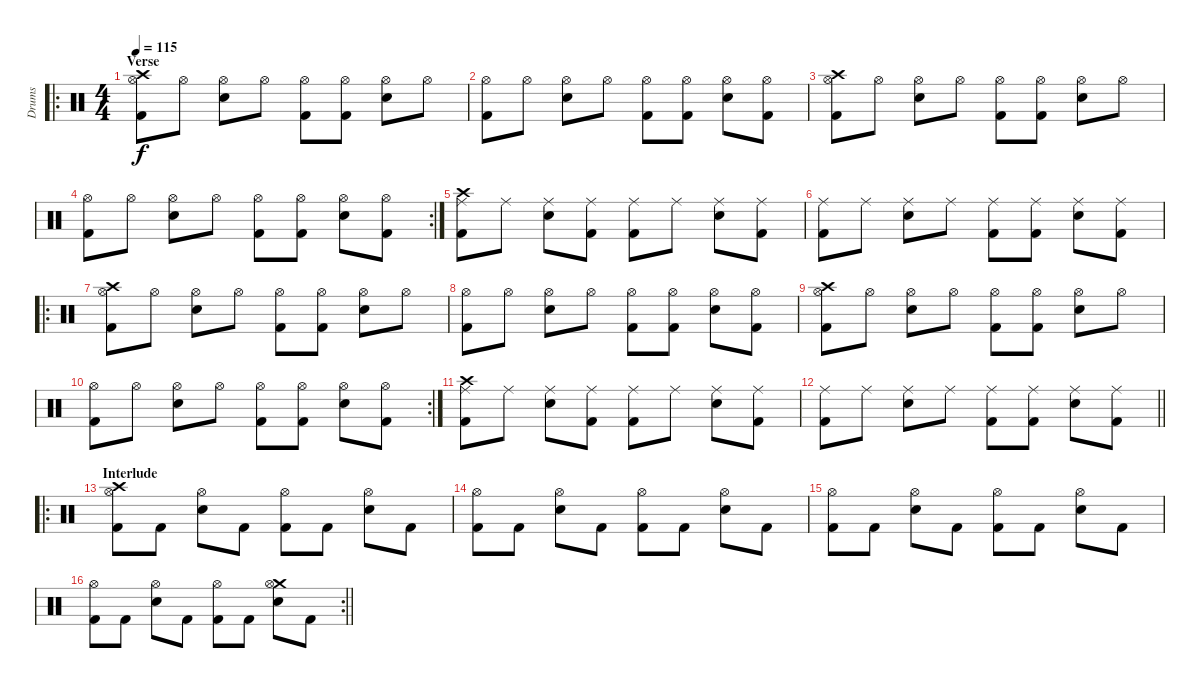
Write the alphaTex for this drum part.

\track ("Drums" "Drums") {instrument percussion}
\staff {score}
\articulation defaults
\ro
\ts (4 4)
\section ("" "Verse")
\tempo 115
\clef neutral
\ks c
("Crash high (hit)" "Hi-Hat (open)" "Kick (hit) 2").8{dy f} "Hi-Hat (open)".8 ("Hi-Hat (open)" "Snare (hit) 2").8 "Hi-Hat (open)".8 ("Hi-Hat (open)" "Kick (hit) 2").8 ("Hi-Hat (open)" "Kick (hit) 2").8 ("Hi-Hat (open)" "Snare (hit) 2").8 "Hi-Hat (open)".8 |
("Hi-Hat (open)" "Kick (hit) 2").8 "Hi-Hat (open)".8 ("Hi-Hat (open)" "Snare (hit) 2").8 "Hi-Hat (open)".8 ("Hi-Hat (open)" "Kick (hit) 2").8 ("Hi-Hat (open)" "Kick (hit) 2").8 ("Hi-Hat (open)" "Snare (hit) 2").8 ("Hi-Hat (open)" "Kick (hit) 2").8 |
("Crash high (hit)" "Hi-Hat (open)" "Kick (hit) 2").8 "Hi-Hat (open)".8 ("Hi-Hat (open)" "Snare (hit) 2").8 "Hi-Hat (open)".8 ("Hi-Hat (open)" "Kick (hit) 2").8 ("Hi-Hat (open)" "Kick (hit) 2").8 ("Hi-Hat (open)" "Snare (hit) 2").8 "Hi-Hat (open)".8 |
\rc 2
("Hi-Hat (open)" "Kick (hit) 2").8 "Hi-Hat (open)".8 ("Hi-Hat (open)" "Snare (hit) 2").8 "Hi-Hat (open)".8 ("Hi-Hat (open)" "Kick (hit) 2").8 ("Hi-Hat (open)" "Kick (hit) 2").8 ("Hi-Hat (open)" "Snare (hit) 2").8 ("Hi-Hat (open)" "Kick (hit) 2").8 |
("Crash high (hit)" "Ride (middle)" "Kick (hit) 2").8 "Ride (middle)".8 ("Ride (middle)" "Snare (hit) 2").8 ("Ride (middle)" "Kick (hit) 2").8 ("Ride (middle)" "Kick (hit) 2").8 "Ride (middle)".8 ("Ride (middle)" "Snare (hit) 2").8 ("Ride (middle)" "Kick (hit) 2").8 |
("Ride (middle)" "Kick (hit) 2").8 "Ride (middle)".8 ("Ride (middle)" "Snare (hit) 2").8 "Ride (middle)".8 ("Ride (middle)" "Kick (hit) 2").8 ("Ride (middle)" "Kick (hit) 2").8 ("Ride (middle)" "Snare (hit) 2").8 ("Ride (middle)" "Kick (hit) 2").8 |
\ro
("Crash high (hit)" "Hi-Hat (open)" "Kick (hit) 2").8 "Hi-Hat (open)".8 ("Hi-Hat (open)" "Snare (hit) 2").8 "Hi-Hat (open)".8 ("Hi-Hat (open)" "Kick (hit) 2").8 ("Hi-Hat (open)" "Kick (hit) 2").8 ("Hi-Hat (open)" "Snare (hit) 2").8 "Hi-Hat (open)".8 |
("Hi-Hat (open)" "Kick (hit) 2").8 "Hi-Hat (open)".8 ("Hi-Hat (open)" "Snare (hit) 2").8 "Hi-Hat (open)".8 ("Hi-Hat (open)" "Kick (hit) 2").8 ("Hi-Hat (open)" "Kick (hit) 2").8 ("Hi-Hat (open)" "Snare (hit) 2").8 ("Hi-Hat (open)" "Kick (hit) 2").8 |
("Crash high (hit)" "Hi-Hat (open)" "Kick (hit) 2").8 "Hi-Hat (open)".8 ("Hi-Hat (open)" "Snare (hit) 2").8 "Hi-Hat (open)".8 ("Hi-Hat (open)" "Kick (hit) 2").8 ("Hi-Hat (open)" "Kick (hit) 2").8 ("Hi-Hat (open)" "Snare (hit) 2").8 "Hi-Hat (open)".8 |
\rc 2
("Hi-Hat (open)" "Kick (hit) 2").8 "Hi-Hat (open)".8 ("Hi-Hat (open)" "Snare (hit) 2").8 "Hi-Hat (open)".8 ("Hi-Hat (open)" "Kick (hit) 2").8 ("Hi-Hat (open)" "Kick (hit) 2").8 ("Hi-Hat (open)" "Snare (hit) 2").8 ("Hi-Hat (open)" "Kick (hit) 2").8 |
("Crash high (hit)" "Ride (middle)" "Kick (hit) 2").8 "Ride (middle)".8 ("Ride (middle)" "Snare (hit) 2").8 ("Ride (middle)" "Kick (hit) 2").8 ("Ride (middle)" "Kick (hit) 2").8 "Ride (middle)".8 ("Ride (middle)" "Snare (hit) 2").8 ("Ride (middle)" "Kick (hit) 2").8 |
\barLineRight lightlight
("Ride (middle)" "Kick (hit) 2").8 "Ride (middle)".8 ("Ride (middle)" "Snare (hit) 2").8 "Ride (middle)".8 ("Ride (middle)" "Kick (hit) 2").8 ("Ride (middle)" "Kick (hit) 2").8 ("Ride (middle)" "Snare (hit) 2").8 ("Ride (middle)" "Kick (hit) 2").8 |
\ro
\section ("" "Interlude")
("Crash high (hit)" "Hi-Hat (open)" "Kick (hit) 2").8 "Kick (hit) 2".8 ("Hi-Hat (open)" "Snare (hit) 2").8 "Kick (hit) 2".8 ("Hi-Hat (open)" "Kick (hit) 2").8 "Kick (hit) 2".8 ("Hi-Hat (open)" "Snare (hit) 2").8 "Kick (hit) 2".8 |
("Hi-Hat (open)" "Kick (hit) 2").8 "Kick (hit) 2".8 ("Hi-Hat (open)" "Snare (hit) 2").8 "Kick (hit) 2".8 ("Hi-Hat (open)" "Kick (hit) 2").8 "Kick (hit) 2".8 ("Hi-Hat (open)" "Snare (hit) 2").8 "Kick (hit) 2".8 |
("Hi-Hat (open)" "Kick (hit) 2").8 "Kick (hit) 2".8 ("Hi-Hat (open)" "Snare (hit) 2").8 "Kick (hit) 2".8 ("Hi-Hat (open)" "Kick (hit) 2").8 "Kick (hit) 2".8 ("Hi-Hat (open)" "Snare (hit) 2").8 "Kick (hit) 2".8 |
\rc 2
\barLineRight lightlight
("Hi-Hat (open)" "Kick (hit) 2").8 "Kick (hit) 2".8 ("Hi-Hat (open)" "Snare (hit) 2").8 "Kick (hit) 2".8 ("Hi-Hat (open)" "Kick (hit) 2").8 "Kick (hit) 2".8 ("Crash medium (hit)" "Hi-Hat (open)" "Snare (hit) 2").8 "Kick (hit) 2".8
